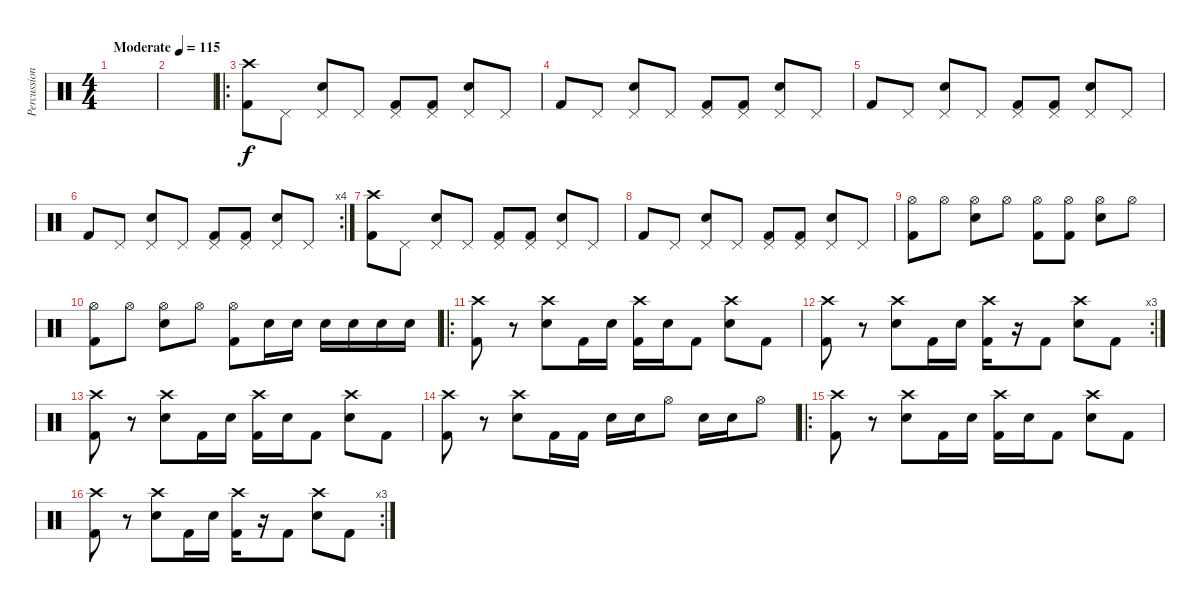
\track ("Percussions" "Percussion") {instrument percussion}
\staff {score}
\articulation defaults
\ts (4 4)
\tempo (115 "Moderate")
\clef neutral
\ks c
|
|
\ro
("Crash high (hit)" "Kick (hit) 2").8 "Pedal Hi-Hat (hit)".8 ("Snare (hit) 2" "Pedal Hi-Hat (hit)").8 "Pedal Hi-Hat (hit)".8 ("Pedal Hi-Hat (hit)" "Kick (hit) 2").8 ("Pedal Hi-Hat (hit)" "Kick (hit) 2").8 ("Pedal Hi-Hat (hit)" "Snare (hit) 2").8 "Pedal Hi-Hat (hit)".8 |
"Kick (hit) 2".8 "Pedal Hi-Hat (hit)".8 ("Snare (hit) 2" "Pedal Hi-Hat (hit)").8 "Pedal Hi-Hat (hit)".8 ("Pedal Hi-Hat (hit)" "Kick (hit) 2").8 ("Pedal Hi-Hat (hit)" "Kick (hit) 2").8 ("Pedal Hi-Hat (hit)" "Snare (hit) 2").8 "Pedal Hi-Hat (hit)".8 |
"Kick (hit) 2".8 "Pedal Hi-Hat (hit)".8 ("Snare (hit) 2" "Pedal Hi-Hat (hit)").8 "Pedal Hi-Hat (hit)".8 ("Pedal Hi-Hat (hit)" "Kick (hit) 2").8 ("Pedal Hi-Hat (hit)" "Kick (hit) 2").8 ("Pedal Hi-Hat (hit)" "Snare (hit) 2").8 "Pedal Hi-Hat (hit)".8 |
\rc 4 "Kick (hit) 2".8 "Pedal Hi-Hat (hit)".8
("Snare (hit) 2" "Pedal Hi-Hat (hit)").8 "Pedal Hi-Hat (hit)".8 ("Pedal Hi-Hat (hit)" "Kick (hit) 2").8 ("Pedal Hi-Hat (hit)" "Kick (hit) 2").8 ("Pedal Hi-Hat (hit)" "Snare (hit) 2").8 "Pedal Hi-Hat (hit)".8 |
("Crash high (hit)" "Kick (hit) 2").8 "Pedal Hi-Hat (hit)".8 ("Snare (hit) 2" "Pedal Hi-Hat (hit)").8 "Pedal Hi-Hat (hit)".8 ("Pedal Hi-Hat (hit)" "Kick (hit) 2").8 ("Pedal Hi-Hat (hit)" "Kick (hit) 2").8 ("Pedal Hi-Hat (hit)" "Snare (hit) 2").8 "Pedal Hi-Hat (hit)".8 |
"Kick (hit) 2".8 "Pedal Hi-Hat (hit)".8 ("Snare (hit) 2" "Pedal Hi-Hat (hit)").8 "Pedal Hi-Hat (hit)".8 ("Pedal Hi-Hat (hit)" "Kick (hit) 2").8 ("Pedal Hi-Hat (hit)" "Kick (hit) 2").8 ("Pedal Hi-Hat (hit)" "Snare (hit) 2").8 "Pedal Hi-Hat (hit)".8 |
("Hi-Hat (open)" "Kick (hit) 2").8 "Hi-Hat (open)".8 ("Snare (hit) 2" "Hi-Hat (open)").8 "Hi-Hat (open)".8 ("Hi-Hat (open)" "Kick (hit) 2").8 ("Hi-Hat (open)" "Kick (hit) 2").8 ("Hi-Hat (open)" "Snare (hit) 2").8 "Hi-Hat (open)".8 |
("Hi-Hat (open)" "Kick (hit) 2").8 "Hi-Hat (open)".8 ("Snare (hit) 2" "Hi-Hat (open)").8 "Hi-Hat (open)".8 ("Hi-Hat (open)" "Kick (hit) 2").8 "Snare (hit) 2".16 "Snare (hit) 2".16 "Snare (hit) 2".16 "Snare (hit) 2".16 "Snare (hit) 2".16 "Snare (hit) 2".16 |
\ro
("Crash high (hit)" "Kick (hit) 2").8 r.8 ("Crash high (hit)" "Snare (hit) 2").8 "Kick (hit) 2".16 "Snare (hit) 2".16 ("Crash high (hit)" "Kick (hit) 2").16 "Snare (hit) 2".16 "Kick (hit) 2".8 ("Crash high (hit)" "Snare (hit) 2").8 "Kick (hit) 2".8 |
\rc 3
("Crash high (hit)" "Kick (hit) 2").8 r.8 ("Crash high (hit)" "Snare (hit) 2").8 "Kick (hit) 2".16 "Snare (hit) 2".16 ("Crash high (hit)" "Kick (hit) 2").16 r.16 "Kick (hit) 2".8 ("Crash high (hit)" "Snare (hit) 2").8 "Kick (hit) 2".8 |
("Crash high (hit)" "Kick (hit) 2").8 r.8 ("Crash high (hit)" "Snare (hit) 2").8 "Kick (hit) 2".16 "Snare (hit) 2".16 ("Crash high (hit)" "Kick (hit) 2").16 "Snare (hit) 2".16 "Kick (hit) 2".8 ("Crash high (hit)" "Snare (hit) 2").8 "Kick (hit) 2".8 |
("Crash high (hit)" "Kick (hit) 2").8 r.8 ("Crash high (hit)" "Snare (hit) 2").8 "Kick (hit) 2".16 "Kick (hit) 2".16 "Snare (hit) 2".16 "Snare (hit) 2".16 "Hi-Hat (open)".8 "Snare (hit) 2".16 "Snare (hit) 2".16 "Hi-Hat (open)".8 |
\ro
("Crash high (hit)" "Kick (hit) 2").8 r.8 ("Crash high (hit)" "Snare (hit) 2").8 "Kick (hit) 2".16 "Snare (hit) 2".16 ("Crash high (hit)" "Kick (hit) 2").16 "Snare (hit) 2".16 "Kick (hit) 2".8 ("Crash high (hit)" "Snare (hit) 2").8 "Kick (hit) 2".8 |
\rc 3
("Crash high (hit)" "Kick (hit) 2").8 r.8 ("Crash high (hit)" "Snare (hit) 2").8 "Kick (hit) 2".16 "Snare (hit) 2".16 ("Crash high (hit)" "Kick (hit) 2").16 r.16 "Kick (hit) 2".8 ("Crash high (hit)" "Snare (hit) 2").8 "Kick (hit) 2".8
